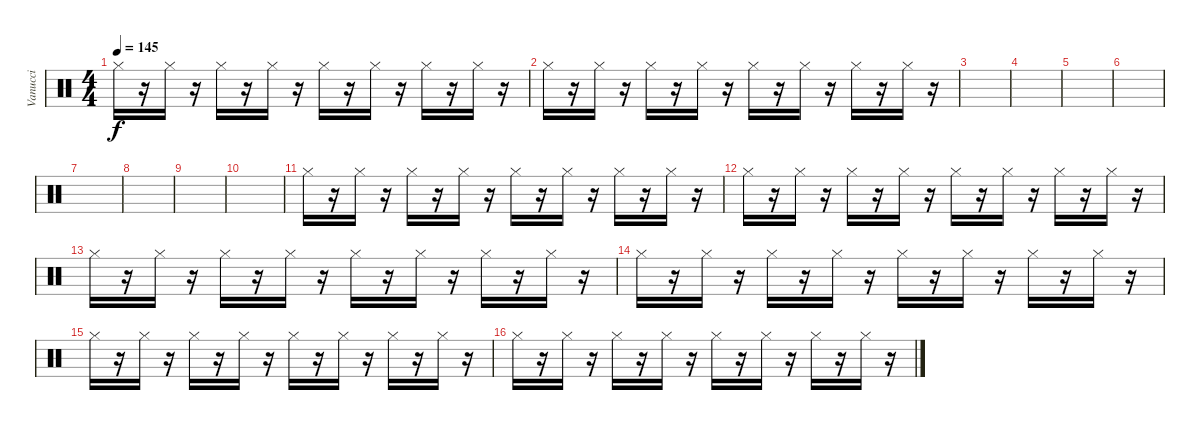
\track ("Vanucci" "Vanucci") {instrument percussion}
\staff {score}
\articulation defaults
\ts (4 4)
\tempo 145
\clef neutral
\ks c "Hi-Hat (closed)".16{dy f}
r.16 "Hi-Hat (closed)".16 r.16 "Hi-Hat (closed)".16 r.16 "Hi-Hat (closed)".16 r.16 "Hi-Hat (closed)".16 r.16 "Hi-Hat (closed)".16 r.16 "Hi-Hat (closed)".16 r.16 "Hi-Hat (closed)".16 r.16 |
"Hi-Hat (closed)".16 r.16 "Hi-Hat (closed)".16 r.16 "Hi-Hat (closed)".16 r.16 "Hi-Hat (closed)".16 r.16 "Hi-Hat (closed)".16 r.16 "Hi-Hat (closed)".16 r.16 "Hi-Hat (closed)".16 r.16 "Hi-Hat (closed)".16 r.16 |
|
|
|
|
|
|
|
|
"Hi-Hat (closed)".16 r.16 "Hi-Hat (closed)".16 r.16 "Hi-Hat (closed)".16 r.16 "Hi-Hat (closed)".16 r.16 "Hi-Hat (closed)".16 r.16 "Hi-Hat (closed)".16 r.16 "Hi-Hat (closed)".16 r.16 "Hi-Hat (closed)".16 r.16 |
"Hi-Hat (closed)".16 r.16 "Hi-Hat (closed)".16 r.16 "Hi-Hat (closed)".16 r.16 "Hi-Hat (closed)".16 r.16 "Hi-Hat (closed)".16 r.16 "Hi-Hat (closed)".16 r.16 "Hi-Hat (closed)".16 r.16 "Hi-Hat (closed)".16 r.16 |
"Hi-Hat (closed)".16 r.16 "Hi-Hat (closed)".16 r.16 "Hi-Hat (closed)".16 r.16 "Hi-Hat (closed)".16 r.16 "Hi-Hat (closed)".16 r.16 "Hi-Hat (closed)".16 r.16 "Hi-Hat (closed)".16 r.16 "Hi-Hat (closed)".16 r.16 |
"Hi-Hat (closed)".16 r.16 "Hi-Hat (closed)".16 r.16 "Hi-Hat (closed)".16 r.16 "Hi-Hat (closed)".16 r.16 "Hi-Hat (closed)".16 r.16 "Hi-Hat (closed)".16 r.16 "Hi-Hat (closed)".16 r.16 "Hi-Hat (closed)".16 r.16 |
"Hi-Hat (closed)".16 r.16 "Hi-Hat (closed)".16 r.16 "Hi-Hat (closed)".16 r.16 "Hi-Hat (closed)".16 r.16 "Hi-Hat (closed)".16 r.16 "Hi-Hat (closed)".16 r.16 "Hi-Hat (closed)".16 r.16 "Hi-Hat (closed)".16 r.16 |
"Hi-Hat (closed)".16 r.16 "Hi-Hat (closed)".16 r.16 "Hi-Hat (closed)".16 r.16 "Hi-Hat (closed)".16 r.16 "Hi-Hat (closed)".16 r.16 "Hi-Hat (closed)".16 r.16 "Hi-Hat (closed)".16 r.16 "Hi-Hat (closed)".16 r.16
